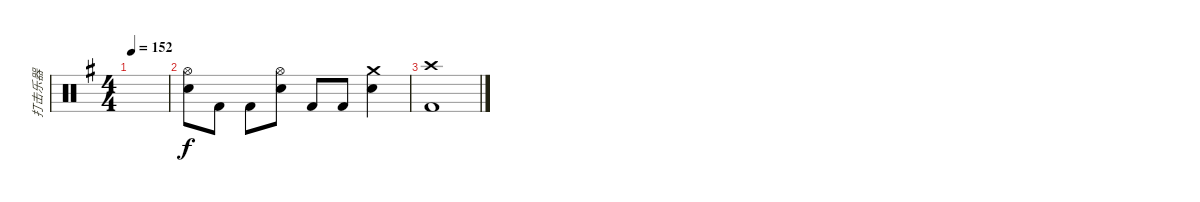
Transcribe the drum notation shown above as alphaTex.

\track ("打击乐器" "打击乐器") {instrument percussion}
\staff {score}
\articulation defaults
\ts (4 4)
\tempo 152
\clef neutral
\ks g
|
("Hi-Hat (open)" "Metronome (bell)").8 "Kick (hit) 2".8 "Kick (hit) 2".8 ("Hi-Hat (open)" "Metronome (bell)").8 "Kick (hit) 2".8 "Kick (hit) 2".8 ("Crash medium (hit)" "Metronome (bell)").4 |
("Crash high (hit)" "Kick (hit) 2").1
